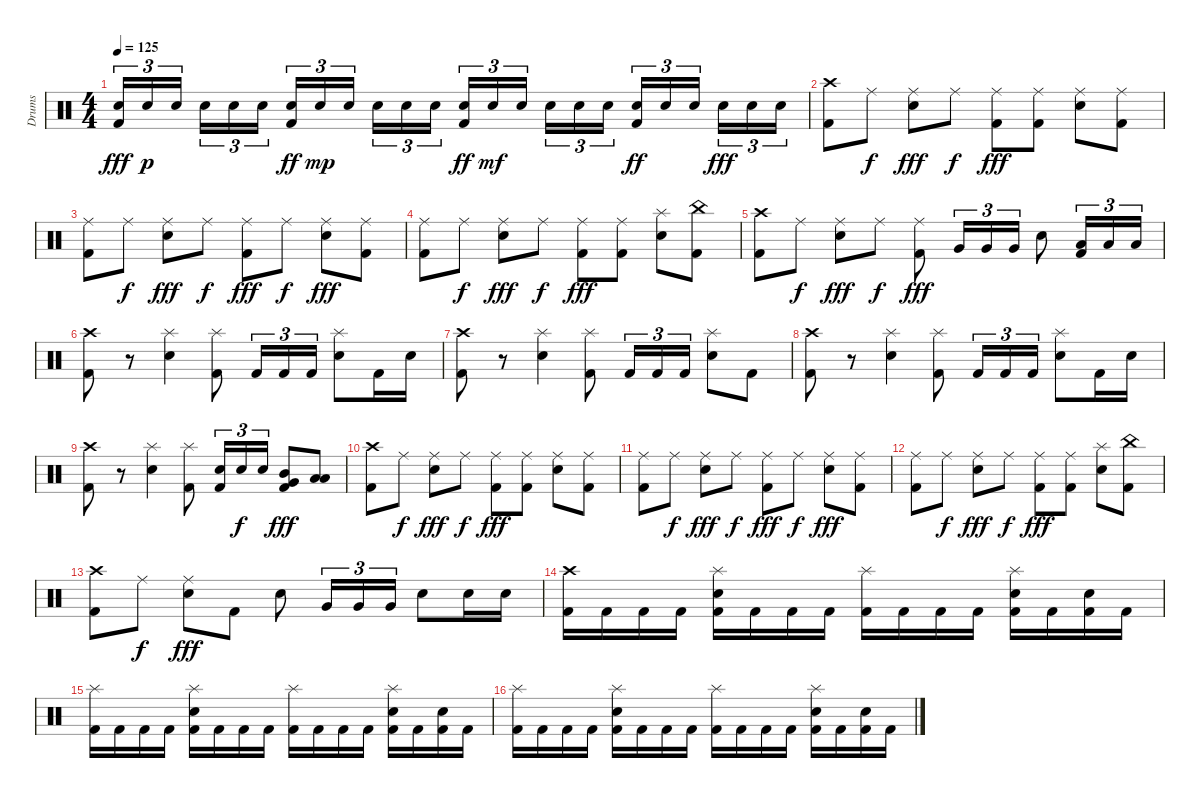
\track ("Drums" "Drums") {instrument percussion}
\staff {score}
\articulation defaults
\ts (4 4)
\tempo 125
\clef neutral
\ks c
("Kick (hit) 2" "Snare (hit) 2").16{tu (3 2) dy fff} "Snare (hit) 2".16{tu (3 2) dy p} "Snare (hit) 2".16{tu (3 2) beam splitsecondary} "Snare (hit) 2".16{tu (3 2)} "Snare (hit) 2".16{tu (3 2)} "Snare (hit) 2".16{tu (3 2)} ("Kick (hit) 2" "Snare (hit) 2").16{tu (3 2) dy ff} "Snare (hit) 2".16{tu (3 2) dy mp} "Snare (hit) 2".16{tu (3 2) beam splitsecondary} "Snare (hit) 2".16{tu (3 2)} "Snare (hit) 2".16{tu (3 2)} "Snare (hit) 2".16{tu (3 2)} ("Kick (hit) 2" "Snare (hit) 2").16{tu (3 2) dy ff} "Snare (hit) 2".16{tu (3 2) dy mf} "Snare (hit) 2".16{tu (3 2) beam splitsecondary} "Snare (hit) 2".16{tu (3 2)} "Snare (hit) 2".16{tu (3 2)} "Snare (hit) 2".16{tu (3 2)} ("Kick (hit) 2" "Snare (hit) 2").16{tu (3 2) dy ff} "Snare (hit) 2".16{tu (3 2)} "Snare (hit) 2".16{tu (3 2) beam splitsecondary} "Snare (hit) 2".16{tu (3 2) dy fff} "Snare (hit) 2".16{tu (3 2)} "Snare (hit) 2".16{tu (3 2)} |
("Kick (hit) 2" "Crash high (hit)").8 "Ride (middle)".8{dy f} ("Ride (middle)" "Snare (hit) 2").8{dy fff} "Ride (middle)".8{dy f} ("Kick (hit) 2" "Ride (middle)").8{dy fff} ("Kick (hit) 2" "Ride (middle)").8 ("Ride (middle)" "Snare (hit) 2").8 ("Kick (hit) 2" "Ride (middle)").8 |
("Kick (hit) 2" "Ride (middle)").8 "Ride (middle)".8{dy f} ("Ride (middle)" "Snare (hit) 2").8{dy fff} "Ride (middle)".8{dy f} ("Kick (hit) 2" "Ride (middle)").8{dy fff} "Ride (middle)".8{dy f} ("Ride (middle)" "Snare (hit) 2").8{dy fff} ("Kick (hit) 2" "Ride (middle)").8 |
("Kick (hit) 2" "Ride (middle)").8 "Ride (middle)".8{dy f} ("Ride (middle)" "Snare (hit) 2").8{dy fff} "Ride (middle)".8{dy f} ("Kick (hit) 2" "Ride (middle)").8{dy fff} ("Kick (hit) 2" "Ride (middle)").8 ("Splash (hit)" "Snare (hit) 2").8 ("Kick (hit) 2" "China (hit)").8 |
("Kick (hit) 2" "Crash high (hit)").8 "Ride (middle)".8{dy f} ("Ride (middle)" "Snare (hit) 2").8{dy fff} "Ride (middle)".8{dy f} ("Kick (hit) 2" "Ride (middle)").8{dy fff} "Very Low Tom (hit)".16{tu (3 2)} "Very Low Tom (hit)".16{tu (3 2)} "Very Low Tom (hit)".16{tu (3 2)} "Snare (hit) 2".8 ("Kick (hit) 2" "Low Floor Tom (hit)").16{tu (3 2)} "Low Floor Tom (hit)".16{tu (3 2)} "Low Floor Tom (hit)".16{tu (3 2)} |
("Kick (hit) 2" "Crash high (hit)").8 r.8 ("Splash (hit)" "Snare (hit) 2").4 ("Kick (hit) 2" "Splash (hit)").8 "Kick (hit) 2".16{tu (3 2)} "Kick (hit) 2".16{tu (3 2)} "Kick (hit) 2".16{tu (3 2)} ("Splash (hit)" "Snare (hit) 2").8 "Kick (hit) 2".16 "Snare (hit) 2".16 |
("Kick (hit) 2" "Crash high (hit)").8 r.8 ("Splash (hit)" "Snare (hit) 2").4 ("Kick (hit) 2" "Splash (hit)").8 "Kick (hit) 2".16{tu (3 2)} "Kick (hit) 2".16{tu (3 2)} "Kick (hit) 2".16{tu (3 2)} ("Splash (hit)" "Snare (hit) 2").8 "Kick (hit) 2".8 |
("Kick (hit) 2" "Crash high (hit)").8 r.8 ("Splash (hit)" "Snare (hit) 2").4 ("Kick (hit) 2" "Splash (hit)").8 "Kick (hit) 2".16{tu (3 2)} "Kick (hit) 2".16{tu (3 2)} "Kick (hit) 2".16{tu (3 2)} ("Splash (hit)" "Snare (hit) 2").8 "Kick (hit) 2".16 "Snare (hit) 2".16 |
("Kick (hit) 2" "Crash high (hit)").8 r.8 ("Splash (hit)" "Snare (hit) 2").4 ("Kick (hit) 2" "Splash (hit)").8 ("Kick (hit) 2" "Snare (hit) 2").16{tu (3 2)} "Snare (hit) 2".16{tu (3 2) dy f} "Snare (hit) 2".16{tu (3 2)} ("Kick (hit) 2" "Mid Tom (hit)" "Very Low Tom (hit)").8{dy fff} ("Low Tom (hit)" "Low Floor Tom (hit)").8 |
("Kick (hit) 2" "Crash high (hit)").8 "Ride (middle)".8{dy f} ("Ride (middle)" "Snare (hit) 2").8{dy fff} "Ride (middle)".8{dy f} ("Kick (hit) 2" "Ride (middle)").8{dy fff} ("Kick (hit) 2" "Ride (middle)").8 ("Ride (middle)" "Snare (hit) 2").8 ("Kick (hit) 2" "Ride (middle)").8 |
("Kick (hit) 2" "Ride (middle)").8 "Ride (middle)".8{dy f} ("Ride (middle)" "Snare (hit) 2").8{dy fff} "Ride (middle)".8{dy f} ("Kick (hit) 2" "Ride (middle)").8{dy fff} "Ride (middle)".8{dy f} ("Ride (middle)" "Snare (hit) 2").8{dy fff} ("Kick (hit) 2" "Ride (middle)").8 |
("Kick (hit) 2" "Ride (middle)").8 "Ride (middle)".8{dy f} ("Ride (middle)" "Snare (hit) 2").8{dy fff} "Ride (middle)".8{dy f} ("Kick (hit) 2" "Ride (middle)").8{dy fff} ("Kick (hit) 2" "Ride (middle)").8 ("Splash (hit)" "Snare (hit) 2").8 ("Kick (hit) 2" "China (hit)").8 |
("Kick (hit) 2" "Crash high (hit)").8 "Ride (middle)".8{dy f} ("Ride (middle)" "Snare (hit) 2").8{dy fff} "Kick (hit) 2".8 "Snare (hit) 2".8 "Very Low Tom (hit)".16{tu (3 2)} "Very Low Tom (hit)".16{tu (3 2)} "Very Low Tom (hit)".16{tu (3 2)} "Snare (hit) 2".8 "Snare (hit) 2".16 "Snare (hit) 2".16 |
("Kick (hit) 2" "Crash high (hit)").16 "Kick (hit) 2".16 "Kick (hit) 2".16 "Kick (hit) 2".16 ("Kick (hit) 2" "Splash (hit)" "Snare (hit) 2").16 "Kick (hit) 2".16 "Kick (hit) 2".16 "Kick (hit) 2".16 ("Kick (hit) 2" "Splash (hit)").16 "Kick (hit) 2".16 "Kick (hit) 2".16 "Kick (hit) 2".16 ("Kick (hit) 2" "Splash (hit)" "Snare (hit) 2").16 "Kick (hit) 2".16 ("Kick (hit) 2" "Snare (hit) 2").16 "Kick (hit) 2".16 |
("Kick (hit) 2" "Splash (hit)").16 "Kick (hit) 2".16 "Kick (hit) 2".16 "Kick (hit) 2".16 ("Kick (hit) 2" "Splash (hit)" "Snare (hit) 2").16 "Kick (hit) 2".16 "Kick (hit) 2".16 "Kick (hit) 2".16 ("Kick (hit) 2" "Splash (hit)").16 "Kick (hit) 2".16 "Kick (hit) 2".16 "Kick (hit) 2".16 ("Kick (hit) 2" "Splash (hit)" "Snare (hit) 2").16 "Kick (hit) 2".16 ("Kick (hit) 2" "Snare (hit) 2").16 "Kick (hit) 2".16 |
("Kick (hit) 2" "Splash (hit)").16 "Kick (hit) 2".16 "Kick (hit) 2".16 "Kick (hit) 2".16 ("Kick (hit) 2" "Splash (hit)" "Snare (hit) 2").16 "Kick (hit) 2".16 "Kick (hit) 2".16 "Kick (hit) 2".16 ("Kick (hit) 2" "Splash (hit)").16 "Kick (hit) 2".16 "Kick (hit) 2".16 "Kick (hit) 2".16 ("Kick (hit) 2" "Splash (hit)" "Snare (hit) 2").16 "Kick (hit) 2".16 ("Kick (hit) 2" "Snare (hit) 2").16 "Kick (hit) 2".16
